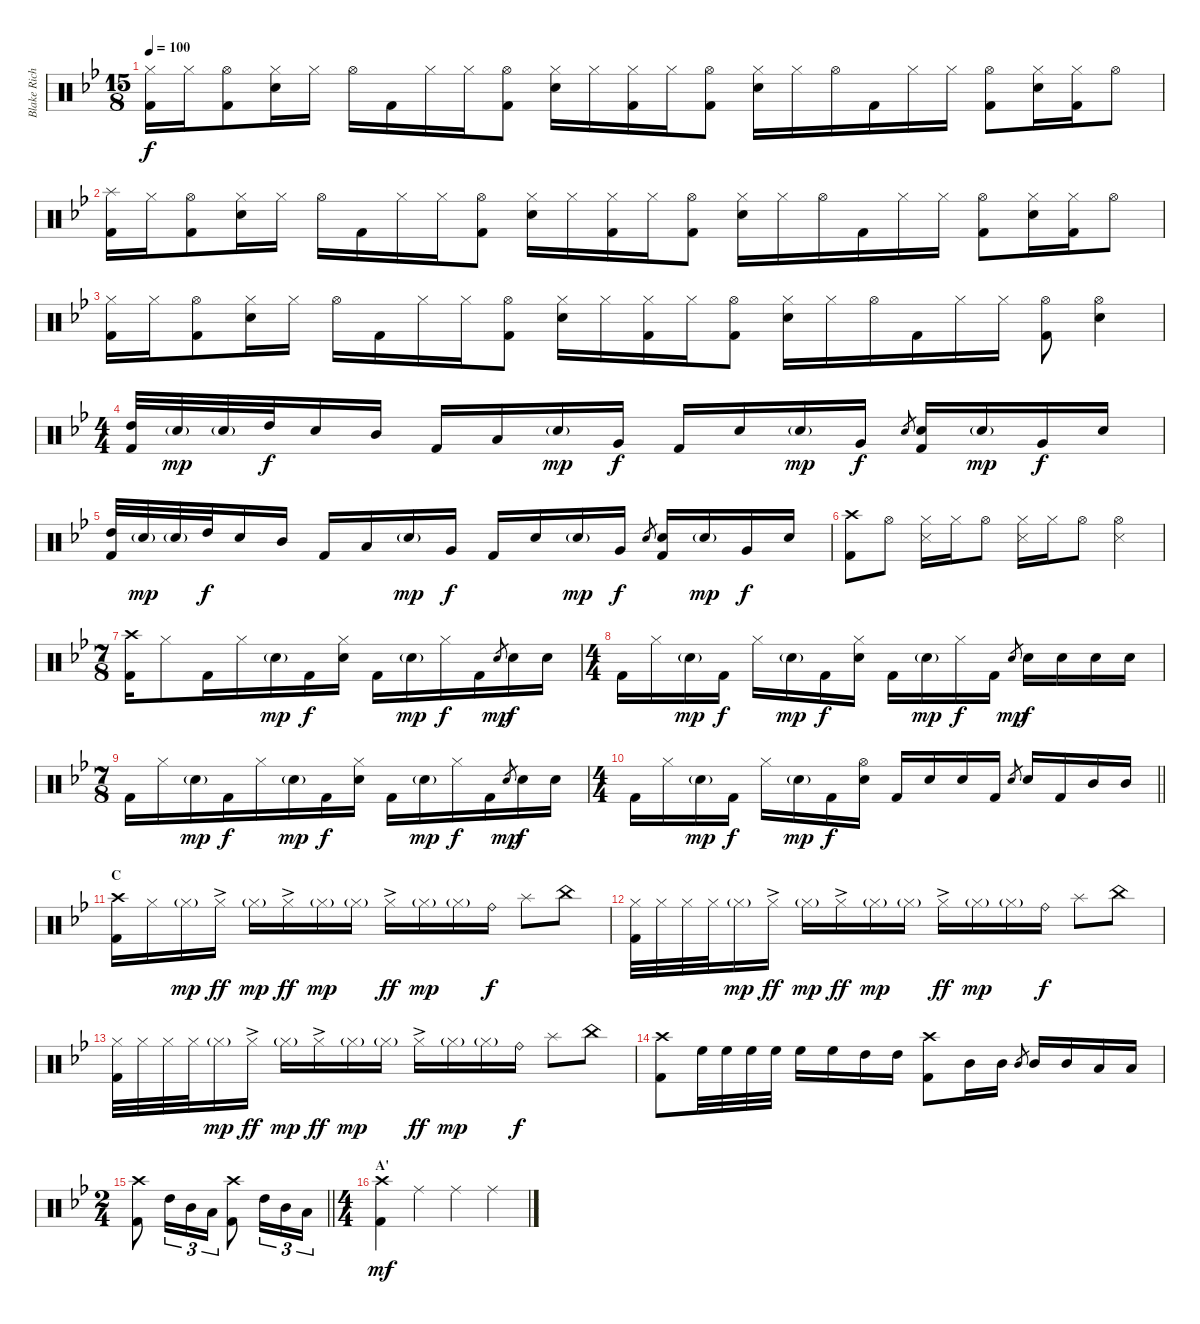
\track ("Blake Richardson - Drums" "Blake Rich") {instrument percussion}
\staff {score}
\articulation defaults
\ts (15 8)
\tempo 100
\clef neutral
\ks gminor
("Hi-Hat (closed)" "Kick (hit) 2").16{dy f} "Hi-Hat (closed)".16 ("Hi-Hat (open)" "Kick (hit) 2").8 ("Electric Snare (hit)" "Hi-Hat (closed)").16 "Hi-Hat (closed)".16 "Hi-Hat (open)".16 "Kick (hit) 2".16 "Hi-Hat (closed)".16 "Hi-Hat (closed)".16 ("Hi-Hat (open)" "Kick (hit) 2").8 ("Hi-Hat (closed)" "Electric Snare (hit)").16 "Hi-Hat (closed)".16 ("Kick (hit) 2" "Hi-Hat (closed)").16 "Hi-Hat (closed)".16 ("Hi-Hat (open)" "Kick (hit) 2").8 ("Electric Snare (hit)" "Hi-Hat (closed)").16 "Hi-Hat (closed)".16 "Hi-Hat (open)".16 "Kick (hit) 2".16 "Hi-Hat (closed)".16 "Hi-Hat (closed)".16 ("Hi-Hat (open)" "Kick (hit) 2").8 ("Electric Snare (hit)" "Hi-Hat (closed)").16 ("Kick (hit) 2" "Hi-Hat (closed)").16 "Hi-Hat (open)".8 |
("Splash (hit)" "Kick (hit) 2").16 "Hi-Hat (closed)".16 ("Hi-Hat (open)" "Kick (hit) 2").8 ("Electric Snare (hit)" "Hi-Hat (closed)").16 "Hi-Hat (closed)".16 "Hi-Hat (open)".16 "Kick (hit) 2".16 "Hi-Hat (closed)".16 "Hi-Hat (closed)".16 ("Hi-Hat (open)" "Kick (hit) 2").8 ("Hi-Hat (closed)" "Electric Snare (hit)").16 "Hi-Hat (closed)".16 ("Kick (hit) 2" "Hi-Hat (closed)").16 "Hi-Hat (closed)".16 ("Hi-Hat (open)" "Kick (hit) 2").8 ("Electric Snare (hit)" "Hi-Hat (closed)").16 "Hi-Hat (closed)".16 "Hi-Hat (open)".16 "Kick (hit) 2".16 "Hi-Hat (closed)".16 "Hi-Hat (closed)".16 ("Hi-Hat (open)" "Kick (hit) 2").8 ("Electric Snare (hit)" "Hi-Hat (closed)").16 ("Kick (hit) 2" "Hi-Hat (closed)").16 "Hi-Hat (open)".8 |
("Hi-Hat (closed)" "Kick (hit) 2").16 "Hi-Hat (closed)".16 ("Hi-Hat (open)" "Kick (hit) 2").8 ("Electric Snare (hit)" "Hi-Hat (closed)").16 "Hi-Hat (closed)".16 "Hi-Hat (open)".16 "Kick (hit) 2".16 "Hi-Hat (closed)".16 "Hi-Hat (closed)".16 ("Hi-Hat (open)" "Kick (hit) 2").8 ("Hi-Hat (closed)" "Electric Snare (hit)").16 "Hi-Hat (closed)".16 ("Kick (hit) 2" "Hi-Hat (closed)").16 "Hi-Hat (closed)".16 ("Hi-Hat (open)" "Kick (hit) 2").8 ("Electric Snare (hit)" "Hi-Hat (closed)").16 "Hi-Hat (closed)".16 "Hi-Hat (open)".16 "Kick (hit) 2".16 "Hi-Hat (closed)".16 "Hi-Hat (closed)".16 ("Hi-Hat (open)" "Kick (hit) 2").8 ("Hi-Hat (open)" "Electric Snare (hit)").4 |
\ts (4 4)
("High Tom (hit)" "Kick (hit) 2").32 "Electric Snare (hit)"{g}.32{dy mp} "Electric Snare (hit)"{g}.32 "High Tom (hit)".32{dy f} "Electric Snare (hit)".16 "Mid Tom (hit)".16 "Kick (hit) 2".16 "Low Tom (hit)".16 "Electric Snare (hit)"{g}.16{dy mp} "Very Low Tom (hit)".16{dy f} "Kick (hit) 2".16 "Electric Snare (hit)".16 "Electric Snare (hit)"{g}.16{dy mp} "Very Low Tom (hit)".16{dy f} "Electric Snare (hit)".8{gr} ("Electric Snare (hit)" "Kick (hit) 2").16 "Electric Snare (hit)"{g}.16{dy mp} "Very Low Tom (hit)".16{dy f} "Electric Snare (hit)".16 |
("High Tom (hit)" "Kick (hit) 2").32 "Electric Snare (hit)"{g}.32{dy mp} "Electric Snare (hit)"{g}.32 "High Tom (hit)".32{dy f} "Electric Snare (hit)".16 "Mid Tom (hit)".16 "Kick (hit) 2".16 "Low Tom (hit)".16 "Electric Snare (hit)"{g}.16{dy mp} "Very Low Tom (hit)".16{dy f} "Kick (hit) 2".16 "Electric Snare (hit)".16 "Electric Snare (hit)"{g}.16{dy mp} "Very Low Tom (hit)".16{dy f} "Electric Snare (hit)".8{gr} ("Electric Snare (hit)" "Kick (hit) 2").16 "Electric Snare (hit)"{g}.16{dy mp} "Very Low Tom (hit)".16{dy f} "Electric Snare (hit)".16 |
("Crash high (hit)" "Kick (hit) 2").8 "Hi-Hat (open)".8 ("Snare (side stick) 3" "Hi-Hat (closed)").16 "Hi-Hat (closed)".16 "Hi-Hat (open)".8 ("Snare (side stick) 3" "Hi-Hat (closed)").16 "Hi-Hat (closed)".16 "Hi-Hat (open)".8 ("Snare (side stick) 3" "Hi-Hat (open)").4 |
\ts (7 8)
("Kick (hit) 2" "Crash high (hit)").16 "Hi-Hat (closed)".8 "Kick (hit) 2".16 "Hi-Hat (closed)".16 "Electric Snare (hit)"{g}.16{dy mp} "Kick (hit) 2".16{dy f} ("Electric Snare (hit)" "Hi-Hat (closed)").16 "Kick (hit) 2".16 "Electric Snare (hit)"{g}.16{dy mp} "Hi-Hat (closed)".16{dy f} "Kick (hit) 2".16 "Electric Snare (hit)".8{gr dy mp} "Electric Snare (hit)".16{dy f} "Electric Snare (hit)".16 |
\ts (4 4)
"Kick (hit) 2".16 "Hi-Hat (closed)".16 "Electric Snare (hit)"{g}.16{dy mp} "Kick (hit) 2".16{dy f} "Hi-Hat (closed)".16 "Electric Snare (hit)"{g}.16{dy mp} "Kick (hit) 2".16{dy f} ("Electric Snare (hit)" "Hi-Hat (closed)").16 "Kick (hit) 2".16 "Electric Snare (hit)"{g}.16{dy mp} "Hi-Hat (closed)".16{dy f} "Kick (hit) 2".16 "Electric Snare (hit)".8{gr dy mp} "Electric Snare (hit)".16{dy f} "Electric Snare (hit)".16 "Electric Snare (hit)".16 "Electric Snare (hit)".16 |
\ts (7 8)
"Kick (hit) 2".16 "Hi-Hat (closed)".16 "Electric Snare (hit)"{g}.16{dy mp} "Kick (hit) 2".16{dy f} "Hi-Hat (closed)".16 "Electric Snare (hit)"{g}.16{dy mp} "Kick (hit) 2".16{dy f} ("Electric Snare (hit)" "Hi-Hat (closed)").16 "Kick (hit) 2".16 "Electric Snare (hit)"{g}.16{dy mp} "Hi-Hat (closed)".16{dy f} "Kick (hit) 2".16 "Electric Snare (hit)".8{gr dy mp} "Electric Snare (hit)".16{dy f} "Electric Snare (hit)".16 |
\ts (4 4)
\barLineRight lightlight "Kick (hit) 2".16 "Hi-Hat (closed)".16 "Electric Snare (hit)"{g}.16{dy mp} "Kick (hit) 2".16{dy f} "Hi-Hat (closed)".16 "Electric Snare (hit)"{g}.16{dy mp} "Kick (hit) 2".16{dy f}
("Electric Snare (hit)" "Hi-Hat (open)").16 "Kick (hit) 2".16 "Electric Snare (hit)".16 "Electric Snare (hit)".16 "Kick (hit) 2".16 "Electric Snare (hit)".8{gr} "Electric Snare (hit)".16 "Kick (hit) 2".16 "Mid Tom (hit)".16 "Mid Tom (hit)".16 |
\section ("" "C")
("Crash high (hit)" "Kick (hit) 2").16 "Hi-Hat (closed)".16 "Hi-Hat (closed)"{g}.16{dy mp} "Hi-Hat (closed)"{ac}.16{dy ff} "Hi-Hat (closed)"{g}.16{dy mp} "Hi-Hat (closed)"{ac}.16{dy ff} "Hi-Hat (closed)"{g}.16{dy mp} "Hi-Hat (closed)"{g}.16 "Hi-Hat (closed)"{ac}.16{dy ff} "Hi-Hat (closed)"{g}.16{dy mp} "Hi-Hat (closed)"{g}.16 "Ride (bell)".16{dy f} "Splash (hit)".8 "China (hit)".8 |
("Hi-Hat (closed)" "Kick (hit) 2").32 "Hi-Hat (closed)".32 "Hi-Hat (closed)".32 "Hi-Hat (closed)".32 "Hi-Hat (closed)"{g}.16{dy mp} "Hi-Hat (closed)"{ac}.16{dy ff} "Hi-Hat (closed)"{g}.16{dy mp} "Hi-Hat (closed)"{ac}.16{dy ff} "Hi-Hat (closed)"{g}.16{dy mp} "Hi-Hat (closed)"{g}.16 "Hi-Hat (closed)"{ac}.16{dy ff} "Hi-Hat (closed)"{g}.16{dy mp} "Hi-Hat (closed)"{g}.16 "Ride (bell)".16{dy f} "Splash (hit)".8 "China (hit)".8 |
("Hi-Hat (closed)" "Kick (hit) 2").32 "Hi-Hat (closed)".32 "Hi-Hat (closed)".32 "Hi-Hat (closed)".32 "Hi-Hat (closed)"{g}.16{dy mp} "Hi-Hat (closed)"{ac}.16{dy ff} "Hi-Hat (closed)"{g}.16{dy mp} "Hi-Hat (closed)"{ac}.16{dy ff} "Hi-Hat (closed)"{g}.16{dy mp} "Hi-Hat (closed)"{g}.16 "Hi-Hat (closed)"{ac}.16{dy ff} "Hi-Hat (closed)"{g}.16{dy mp} "Hi-Hat (closed)"{g}.16 "Ride (bell)".16{dy f} "Splash (hit)".8 "China (hit)".8 |
("Crash high (hit)" "Kick (hit) 2").8 "High Floor Tom (hit)".32 "High Floor Tom (hit)".32 "High Floor Tom (hit)".32 "High Floor Tom (hit)".32 "High Floor Tom (hit)".16 "High Floor Tom (hit)".16 "High Tom (hit)".16 "High Tom (hit)".16 ("Crash high (hit)" "Kick (hit) 2").8 "Mid Tom (hit)".16 "Mid Tom (hit)".16 "Mid Tom (hit)".8{gr} "Mid Tom (hit)".16 "Mid Tom (hit)".16 "Low Tom (hit)".16 "Low Tom (hit)".16 |
\ts (2 4)
\barLineRight lightlight
("Crash high (hit)" "Kick (hit) 2").8 "High Tom (hit)".16{tu (3 2)} "Mid Tom (hit)".16{tu (3 2)} "Low Tom (hit)".16{tu (3 2)} ("Crash high (hit)" "Kick (hit) 2").8 "High Tom (hit)".16{tu (3 2)} "Mid Tom (hit)".16{tu (3 2)} "Low Tom (hit)".16{tu (3 2)} |
\ts (4 4)
\section ("" "A'")
("Crash high (hit)" "Kick (hit) 2").4{dy mf} "Ride (middle)".4 "Ride (middle)".4 "Ride (middle)".4
